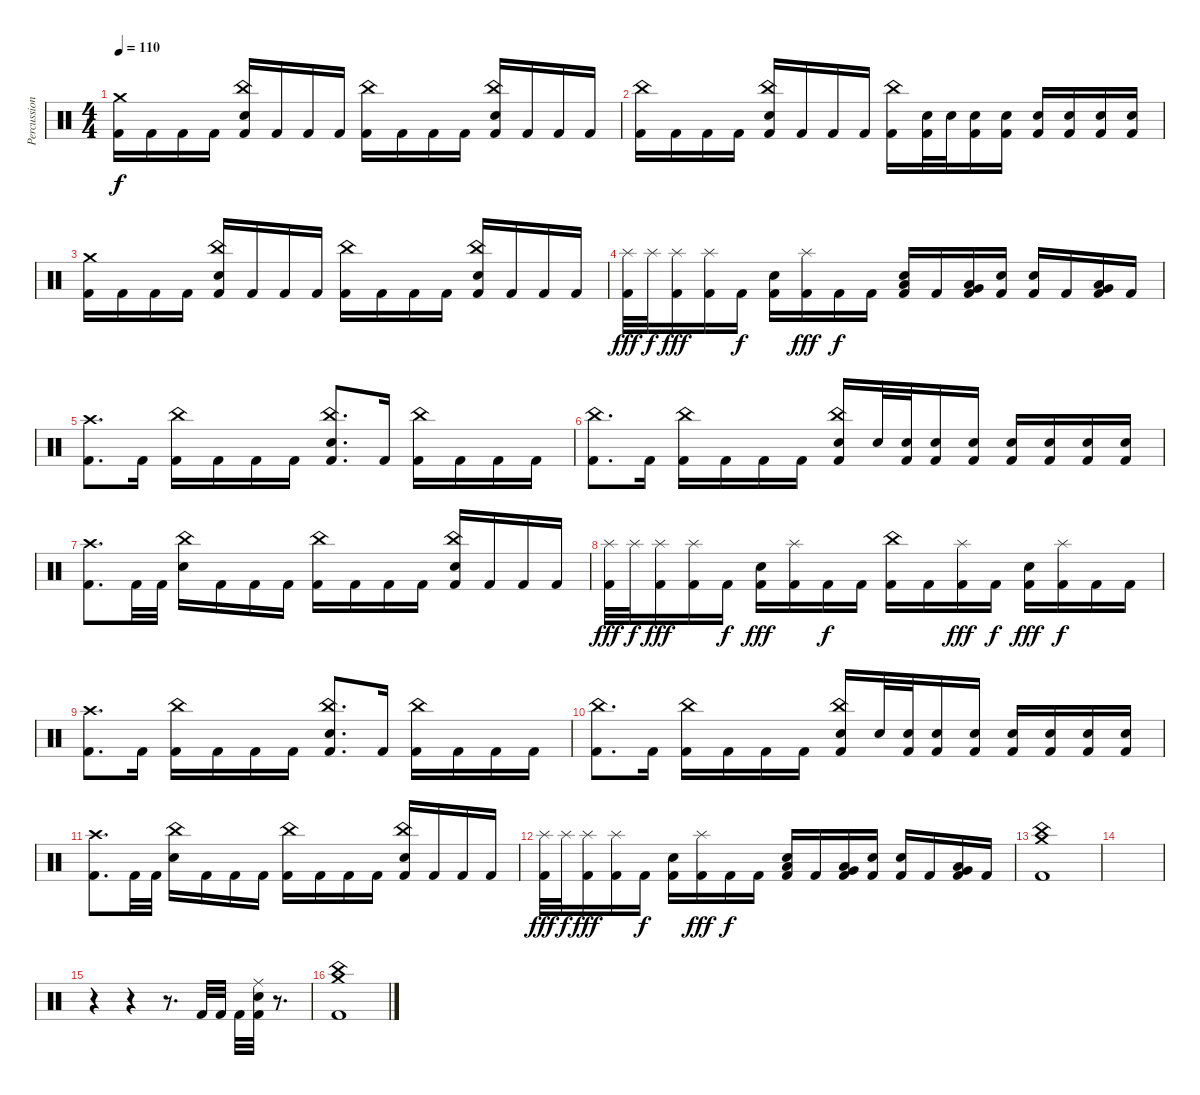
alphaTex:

\track ("Percussion" "Percussion") {instrument percussion}
\staff {score}
\articulation defaults
\ts (4 4)
\tempo 110
\clef neutral
\ks c
("Crash medium (hit)" "Kick (hit) 2").16{dy f} "Kick (hit) 2".16 "Kick (hit) 2".16 "Kick (hit) 2".16 ("China (hit)" "Electric Snare (hit)" "Kick (hit) 2").16 "Kick (hit) 2".16 "Kick (hit) 2".16 "Kick (hit) 2".16 ("China (hit)" "Kick (hit) 2").16 "Kick (hit) 2".16 "Kick (hit) 2".16 "Kick (hit) 2".16 ("China (hit)" "Electric Snare (hit)" "Kick (hit) 2").16 "Kick (hit) 2".16 "Kick (hit) 2".16 "Kick (hit) 2".16 |
("China (hit)" "Kick (hit) 2").16 "Kick (hit) 2".16 "Kick (hit) 2".16 "Kick (hit) 2".16 ("China (hit)" "Electric Snare (hit)" "Kick (hit) 2").16 "Kick (hit) 2".16 "Kick (hit) 2".16 "Kick (hit) 2".16 ("China (hit)" "Kick (hit) 2").16 ("Electric Snare (hit)" "Kick (hit) 2").32 "Electric Snare (hit)".32 ("Electric Snare (hit)" "Kick (hit) 2").16 ("Electric Snare (hit)" "Kick (hit) 2").16 ("Electric Snare (hit)" "Kick (hit) 2").16 ("Electric Snare (hit)" "Kick (hit) 2").16 ("Electric Snare (hit)" "Kick (hit) 2").16 ("Electric Snare (hit)" "Kick (hit) 2").16 |
("Crash medium (hit)" "Kick (hit) 2").16 "Kick (hit) 2".16 "Kick (hit) 2".16 "Kick (hit) 2".16 ("China (hit)" "Electric Snare (hit)" "Kick (hit) 2").16 "Kick (hit) 2".16 "Kick (hit) 2".16 "Kick (hit) 2".16 ("China (hit)" "Kick (hit) 2").16 "Kick (hit) 2".16 "Kick (hit) 2".16 "Kick (hit) 2".16 ("China (hit)" "Electric Snare (hit)" "Kick (hit) 2").16 "Kick (hit) 2".16 "Kick (hit) 2".16 "Kick (hit) 2".16 |
("Splash (hit)" "Kick (hit) 2").32{dy fff} "Splash (hit)".32{dy f} ("Splash (hit)" "Kick (hit) 2").16{dy fff} ("Splash (hit)" "Kick (hit) 2").16 "Kick (hit) 2".16{dy f} ("Electric Snare (hit)" "Kick (hit) 2").16 ("Splash (hit)" "Kick (hit) 2").16{dy fff} "Kick (hit) 2".16{dy f} "Kick (hit) 2".16 ("Electric Snare (hit)" "Low Tom (hit)" "Kick (hit) 2").16 "Kick (hit) 2".16 ("Low Tom (hit)" "Very Low Tom (hit)" "Kick (hit) 2").16 ("Electric Snare (hit)" "Kick (hit) 2").16 ("Electric Snare (hit)" "Kick (hit) 2").16 "Kick (hit) 2".16 ("Very Low Tom (hit)" "Low Floor Tom (hit)" "Kick (hit) 2").16 "Kick (hit) 2".16 |
("Crash high (hit)" "Kick (hit) 2").8{d} "Kick (hit) 2".16 ("China (hit)" "Kick (hit) 2").16 "Kick (hit) 2".16 "Kick (hit) 2".16 "Kick (hit) 2".16 ("China (hit)" "Electric Snare (hit)" "Kick (hit) 2").8{d} "Kick (hit) 2".16 ("China (hit)" "Kick (hit) 2").16 "Kick (hit) 2".16 "Kick (hit) 2".16 "Kick (hit) 2".16 |
("China (hit)" "Kick (hit) 2").8{d} "Kick (hit) 2".16 ("China (hit)" "Kick (hit) 2").16 "Kick (hit) 2".16 "Kick (hit) 2".16 "Kick (hit) 2".16 ("China (hit)" "Electric Snare (hit)" "Kick (hit) 2").16 "Electric Snare (hit)".32 ("Electric Snare (hit)" "Kick (hit) 2").32 ("Electric Snare (hit)" "Kick (hit) 2").16 ("Electric Snare (hit)" "Kick (hit) 2").16 ("Electric Snare (hit)" "Kick (hit) 2").16 ("Electric Snare (hit)" "Kick (hit) 2").16 ("Electric Snare (hit)" "Kick (hit) 2").16 ("Electric Snare (hit)" "Kick (hit) 2").16 |
("Crash high (hit)" "Kick (hit) 2").8{d} "Kick (hit) 2".32 "Kick (hit) 2".32 ("China (hit)" "Electric Snare (hit)").16 "Kick (hit) 2".16 "Kick (hit) 2".16 "Kick (hit) 2".16 ("China (hit)" "Kick (hit) 2").16 "Kick (hit) 2".16 "Kick (hit) 2".16 "Kick (hit) 2".16 ("China (hit)" "Electric Snare (hit)" "Kick (hit) 2").16 "Kick (hit) 2".16 "Kick (hit) 2".16 "Kick (hit) 2".16 |
("Splash (hit)" "Kick (hit) 2").32{dy fff} "Splash (hit)".32{dy f} ("Splash (hit)" "Kick (hit) 2").16{dy fff} ("Splash (hit)" "Kick (hit) 2").16 "Kick (hit) 2".16{dy f} ("Electric Snare (hit)" "Kick (hit) 2").16{dy fff} ("Splash (hit)" "Kick (hit) 2").16 "Kick (hit) 2".16{dy f} "Kick (hit) 2".16 ("China (hit)" "Kick (hit) 2").16 "Kick (hit) 2".16 ("Splash (hit)" "Kick (hit) 2").16{dy fff} "Kick (hit) 2".16{dy f} ("Electric Snare (hit)" "Kick (hit) 2").16{dy fff} ("Splash (hit)" "Kick (hit) 2").16{dy f} "Kick (hit) 2".16 "Kick (hit) 2".16 |
("Crash high (hit)" "Kick (hit) 2").8{d} "Kick (hit) 2".16 ("China (hit)" "Kick (hit) 2").16 "Kick (hit) 2".16 "Kick (hit) 2".16 "Kick (hit) 2".16 ("China (hit)" "Electric Snare (hit)" "Kick (hit) 2").8{d} "Kick (hit) 2".16 ("China (hit)" "Kick (hit) 2").16 "Kick (hit) 2".16 "Kick (hit) 2".16 "Kick (hit) 2".16 |
("China (hit)" "Kick (hit) 2").8{d} "Kick (hit) 2".16 ("China (hit)" "Kick (hit) 2").16 "Kick (hit) 2".16 "Kick (hit) 2".16 "Kick (hit) 2".16 ("China (hit)" "Electric Snare (hit)" "Kick (hit) 2").16 "Electric Snare (hit)".32 ("Electric Snare (hit)" "Kick (hit) 2").32 ("Electric Snare (hit)" "Kick (hit) 2").16 ("Electric Snare (hit)" "Kick (hit) 2").16 ("Electric Snare (hit)" "Kick (hit) 2").16 ("Electric Snare (hit)" "Kick (hit) 2").16 ("Electric Snare (hit)" "Kick (hit) 2").16 ("Electric Snare (hit)" "Kick (hit) 2").16 |
("Crash high (hit)" "Kick (hit) 2").8{d} "Kick (hit) 2".32 "Kick (hit) 2".32 ("China (hit)" "Electric Snare (hit)").16 "Kick (hit) 2".16 "Kick (hit) 2".16 "Kick (hit) 2".16 ("China (hit)" "Kick (hit) 2").16 "Kick (hit) 2".16 "Kick (hit) 2".16 "Kick (hit) 2".16 ("China (hit)" "Electric Snare (hit)" "Kick (hit) 2").16 "Kick (hit) 2".16 "Kick (hit) 2".16 "Kick (hit) 2".16 |
("Splash (hit)" "Kick (hit) 2").32{dy fff} "Splash (hit)".32{dy f} ("Splash (hit)" "Kick (hit) 2").16{dy fff} ("Splash (hit)" "Kick (hit) 2").16 "Kick (hit) 2".16{dy f} ("Electric Snare (hit)" "Kick (hit) 2").16 ("Splash (hit)" "Kick (hit) 2").16{dy fff} "Kick (hit) 2".16{dy f} "Kick (hit) 2".16 ("Electric Snare (hit)" "Low Tom (hit)" "Kick (hit) 2").16 "Kick (hit) 2".16 ("Low Tom (hit)" "Very Low Tom (hit)" "Kick (hit) 2").16 ("Electric Snare (hit)" "Kick (hit) 2").16 ("Electric Snare (hit)" "Kick (hit) 2").16 "Kick (hit) 2".16 ("Very Low Tom (hit)" "Low Floor Tom (hit)" "Kick (hit) 2").16 "Kick (hit) 2".16 |
("Crash medium (hit)" "China (hit)" "Kick (hit) 2").1 |
|
r.4 r.4 r.8{d} "Kick (hit) 2".32 "Kick (hit) 2".32 "Kick (hit) 2".32 ("Ride (middle)" "Electric Snare (hit)" "Kick (hit) 2").32 r.8{d} |
("Crash medium (hit)" "China (hit)" "Kick (hit) 2").1
